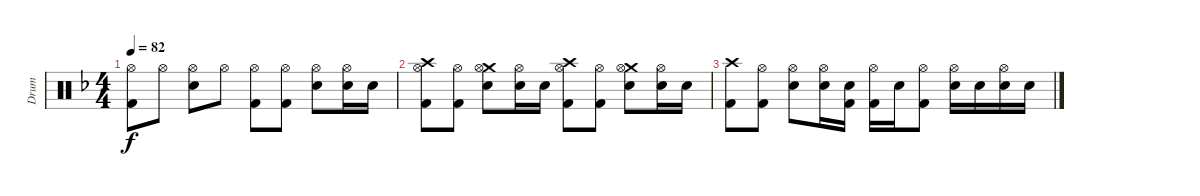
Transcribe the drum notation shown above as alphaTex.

\track ("Drum" "Drum") {instrument percussion}
\staff {score}
\articulation defaults
\ts (4 4)
\tempo 82
\clef neutral
\ks f
("Hi-Hat (open)" "Kick (hit) 2").8{dy f} "Hi-Hat (open)".8 ("Hi-Hat (open)" "Electric Snare (hit)").8 "Hi-Hat (open)".8 ("Hi-Hat (open)" "Kick (hit) 2").8 ("Hi-Hat (open)" "Kick (hit) 2").8 ("Hi-Hat (open)" "Electric Snare (hit)").8 ("Hi-Hat (open)" "Electric Snare (hit)").16 "Electric Snare (hit)".16 |
("Crash high (hit)" "Hi-Hat (open)" "Kick (hit) 2").8 ("Hi-Hat (open)" "Kick (hit) 2").8 ("Crash medium (hit)" "Hi-Hat (open)" "Electric Snare (hit)").8 ("Hi-Hat (open)" "Electric Snare (hit)").16 "Electric Snare (hit)".16 ("Crash high (hit)" "Hi-Hat (open)" "Kick (hit) 2").8 ("Hi-Hat (open)" "Kick (hit) 2").8 ("Crash medium (hit)" "Hi-Hat (open)" "Electric Snare (hit)").8 ("Hi-Hat (open)" "Electric Snare (hit)").16 "Electric Snare (hit)".16 |
("Crash high (hit)" "Kick (hit) 2").8 ("Hi-Hat (open)" "Kick (hit) 2").8 ("Hi-Hat (open)" "Electric Snare (hit)").8 ("Hi-Hat (open)" "Electric Snare (hit)").16 ("Electric Snare (hit)" "Kick (hit) 2").16 ("Hi-Hat (open)" "Kick (hit) 2").16 "Electric Snare (hit)".16 ("Hi-Hat (open)" "Kick (hit) 2").8 ("Hi-Hat (open)" "Electric Snare (hit)").16 "Electric Snare (hit)".16 ("Hi-Hat (open)" "Electric Snare (hit)").16 "Electric Snare (hit)".16
